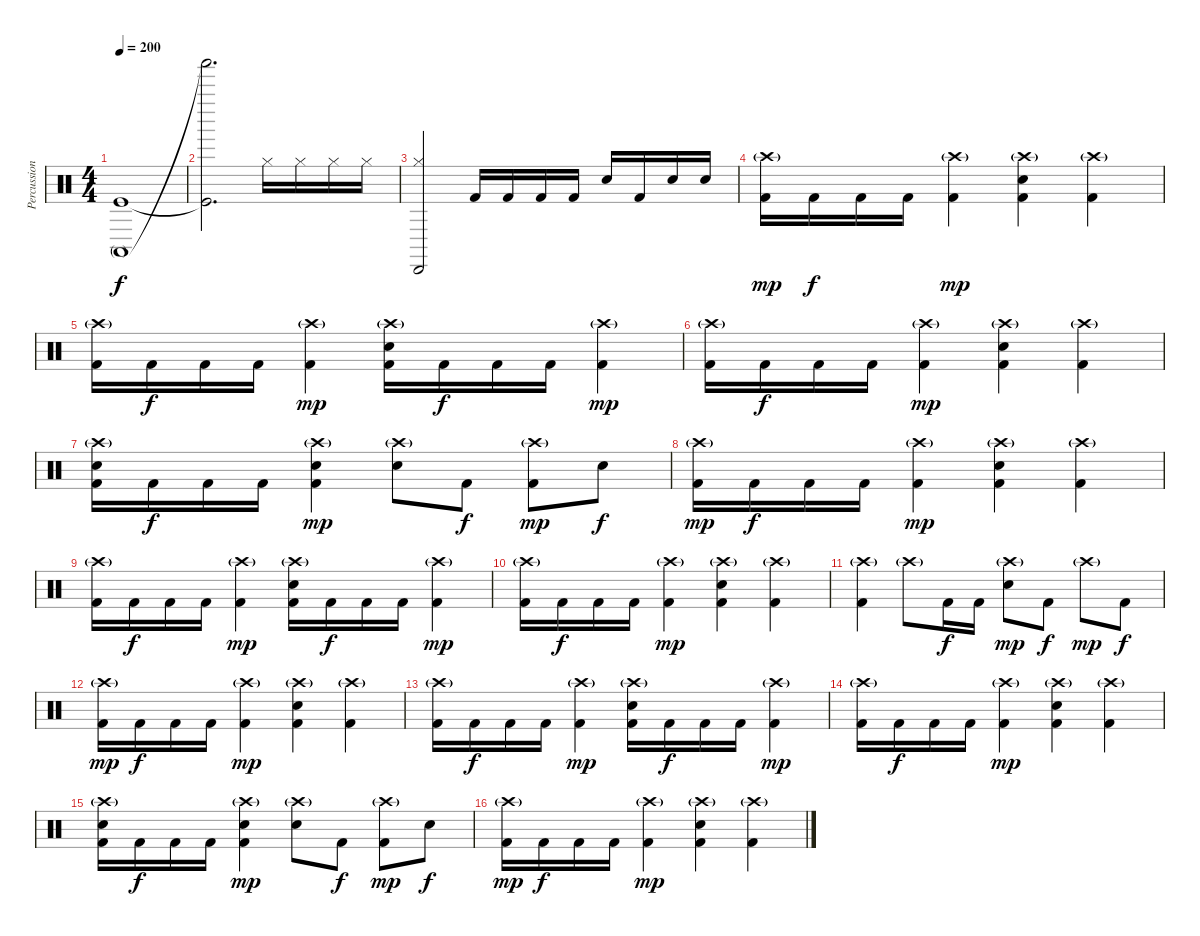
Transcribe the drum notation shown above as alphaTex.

\track ("Percussion" "Percussion") {instrument percussion}
\staff {score}
\articulation defaults
\ts (4 4)
\tempo 200
\clef neutral
\ks c
("Conga high (mute)" "Kick (hit)").1{dy f} |
("Shaker (hit)"{t} "Kick (hit)"{t}).2{d} "Hi-Hat (closed)".16 "Hi-Hat (closed)".16 "Hi-Hat (closed)".16 "Hi-Hat (closed)".16 |
("Cabasa (hit)" "Hi-Hat (closed)").2 "Kick (hit) 2".16 "Kick (hit) 2".16 "Kick (hit) 2".16 "Kick (hit) 2".16 "Electric Snare (hit)".16 "Kick (hit) 2".16 "Electric Snare (hit)".16 "Electric Snare (hit)".16 |
("Crash high (hit)"{g} "Kick (hit) 2").16{dy mp} "Kick (hit) 2".16{dy f} "Kick (hit) 2".16 "Kick (hit) 2".16 ("Crash high (hit)"{g} "Kick (hit) 2").4{dy mp} ("Crash high (hit)"{g} "Electric Snare (hit)" "Kick (hit) 2").4 ("Crash high (hit)"{g} "Kick (hit) 2").4 |
("Crash high (hit)"{g} "Kick (hit) 2").16 "Kick (hit) 2".16{dy f} "Kick (hit) 2".16 "Kick (hit) 2".16 ("Crash high (hit)"{g} "Kick (hit) 2").4{dy mp} ("Crash high (hit)"{g} "Electric Snare (hit)" "Kick (hit) 2").16 "Kick (hit) 2".16{dy f} "Kick (hit) 2".16 "Kick (hit) 2".16 ("Crash high (hit)"{g} "Kick (hit) 2").4{dy mp} |
("Crash high (hit)"{g} "Kick (hit) 2").16 "Kick (hit) 2".16{dy f} "Kick (hit) 2".16 "Kick (hit) 2".16 ("Crash high (hit)"{g} "Kick (hit) 2").4{dy mp} ("Crash high (hit)"{g} "Electric Snare (hit)" "Kick (hit) 2").4 ("Crash high (hit)"{g} "Kick (hit) 2").4 |
("Crash high (hit)"{g} "Electric Snare (hit)" "Kick (hit) 2").16 "Kick (hit) 2".16{dy f} "Kick (hit) 2".16 "Kick (hit) 2".16 ("Crash high (hit)"{g} "Electric Snare (hit)" "Kick (hit) 2").4{dy mp} ("Crash high (hit)"{g} "Electric Snare (hit)").8 "Kick (hit) 2".8{dy f} ("Crash high (hit)"{g} "Kick (hit) 2").8{dy mp} "Electric Snare (hit)".8{dy f} |
("Crash high (hit)"{g} "Kick (hit) 2").16{dy mp} "Kick (hit) 2".16{dy f} "Kick (hit) 2".16 "Kick (hit) 2".16 ("Crash high (hit)"{g} "Kick (hit) 2").4{dy mp} ("Crash high (hit)"{g} "Electric Snare (hit)" "Kick (hit) 2").4 ("Crash high (hit)"{g} "Kick (hit) 2").4 |
("Crash high (hit)"{g} "Kick (hit) 2").16 "Kick (hit) 2".16{dy f} "Kick (hit) 2".16 "Kick (hit) 2".16 ("Crash high (hit)"{g} "Kick (hit) 2").4{dy mp} ("Crash high (hit)"{g} "Electric Snare (hit)" "Kick (hit) 2").16 "Kick (hit) 2".16{dy f} "Kick (hit) 2".16 "Kick (hit) 2".16 ("Crash high (hit)"{g} "Kick (hit) 2").4{dy mp} |
("Crash high (hit)"{g} "Kick (hit) 2").16 "Kick (hit) 2".16{dy f} "Kick (hit) 2".16 "Kick (hit) 2".16 ("Crash high (hit)"{g} "Kick (hit) 2").4{dy mp} ("Crash high (hit)"{g} "Electric Snare (hit)" "Kick (hit) 2").4 ("Crash high (hit)"{g} "Kick (hit) 2").4 |
("Crash high (hit)"{g} "Kick (hit) 2").4 "Crash high (hit)"{g}.8 "Kick (hit) 2".16{dy f} "Kick (hit) 2".16 ("Crash high (hit)"{g} "Electric Snare (hit)").8{dy mp} "Kick (hit) 2".8{dy f} "Crash high (hit)"{g}.8{dy mp} "Kick (hit) 2".8{dy f} |
("Crash high (hit)"{g} "Kick (hit) 2").16{dy mp} "Kick (hit) 2".16{dy f} "Kick (hit) 2".16 "Kick (hit) 2".16 ("Crash high (hit)"{g} "Kick (hit) 2").4{dy mp} ("Crash high (hit)"{g} "Electric Snare (hit)" "Kick (hit) 2").4 ("Crash high (hit)"{g} "Kick (hit) 2").4 |
("Crash high (hit)"{g} "Kick (hit) 2").16 "Kick (hit) 2".16{dy f} "Kick (hit) 2".16 "Kick (hit) 2".16 ("Crash high (hit)"{g} "Kick (hit) 2").4{dy mp} ("Crash high (hit)"{g} "Electric Snare (hit)" "Kick (hit) 2").16 "Kick (hit) 2".16{dy f} "Kick (hit) 2".16 "Kick (hit) 2".16 ("Crash high (hit)"{g} "Kick (hit) 2").4{dy mp} |
("Crash high (hit)"{g} "Kick (hit) 2").16 "Kick (hit) 2".16{dy f} "Kick (hit) 2".16 "Kick (hit) 2".16 ("Crash high (hit)"{g} "Kick (hit) 2").4{dy mp} ("Crash high (hit)"{g} "Electric Snare (hit)" "Kick (hit) 2").4 ("Crash high (hit)"{g} "Kick (hit) 2").4 |
("Crash high (hit)"{g} "Electric Snare (hit)" "Kick (hit) 2").16 "Kick (hit) 2".16{dy f} "Kick (hit) 2".16 "Kick (hit) 2".16 ("Crash high (hit)"{g} "Electric Snare (hit)" "Kick (hit) 2").4{dy mp} ("Crash high (hit)"{g} "Electric Snare (hit)").8 "Kick (hit) 2".8{dy f} ("Crash high (hit)"{g} "Kick (hit) 2").8{dy mp} "Electric Snare (hit)".8{dy f} |
("Crash high (hit)"{g} "Kick (hit) 2").16{dy mp} "Kick (hit) 2".16{dy f} "Kick (hit) 2".16 "Kick (hit) 2".16 ("Crash high (hit)"{g} "Kick (hit) 2").4{dy mp} ("Crash high (hit)"{g} "Electric Snare (hit)" "Kick (hit) 2").4 ("Crash high (hit)"{g} "Kick (hit) 2").4
